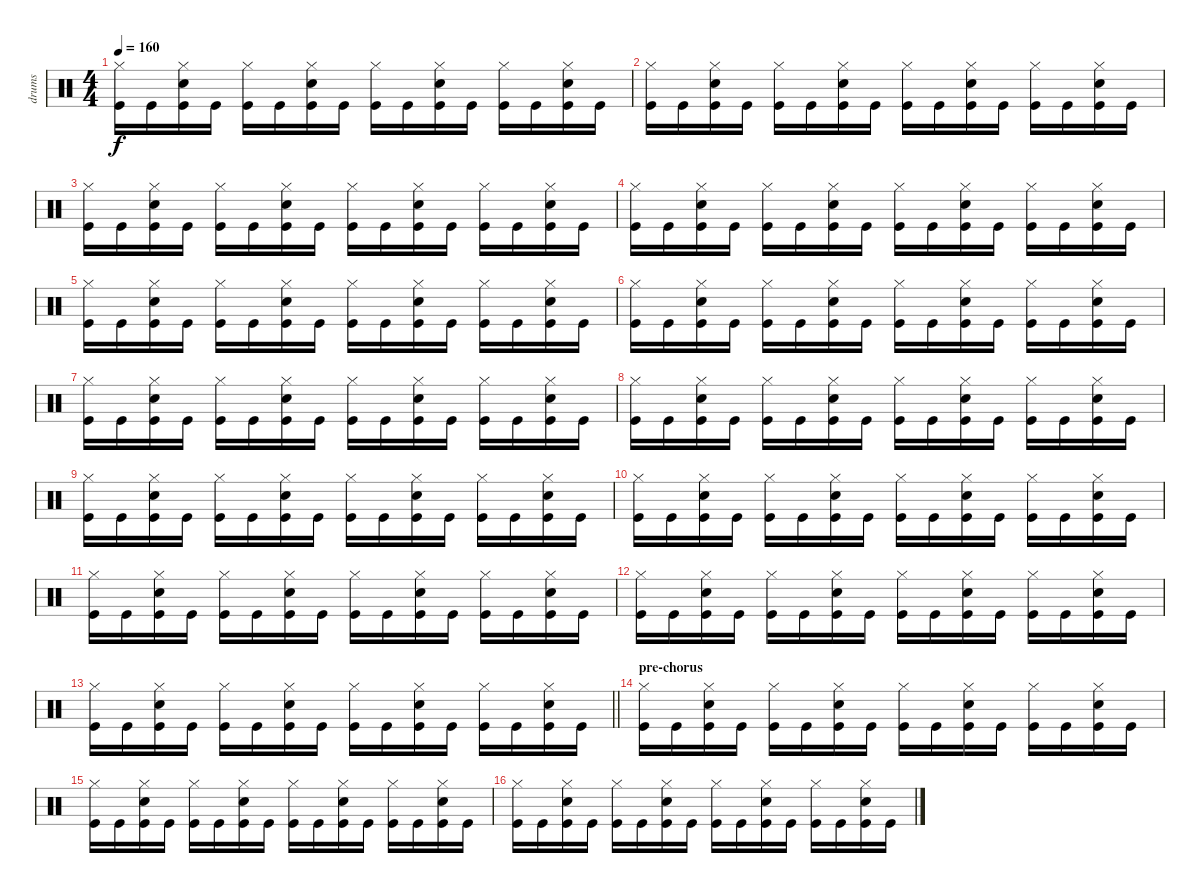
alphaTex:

\track ("drums" "drums") {instrument percussion}
\staff {score}
\articulation defaults
\ts (4 4)
\tempo 160
\clef neutral
\ks c
("Kick (hit)" "Hi-Hat (closed)").16{dy f} "Kick (hit)".16 ("Kick (hit)" "Hi-Hat (closed)" "Snare (hit) 2").16 "Kick (hit)".16 ("Kick (hit)" "Hi-Hat (closed)").16 "Kick (hit)".16 ("Kick (hit)" "Hi-Hat (closed)" "Snare (hit) 2").16 "Kick (hit)".16 ("Kick (hit)" "Hi-Hat (closed)").16 "Kick (hit)".16 ("Kick (hit)" "Hi-Hat (closed)" "Snare (hit) 2").16 "Kick (hit)".16 ("Kick (hit)" "Hi-Hat (closed)").16 "Kick (hit)".16 ("Kick (hit)" "Hi-Hat (closed)" "Snare (hit) 2").16 "Kick (hit)".16 |
("Kick (hit)" "Hi-Hat (closed)").16 "Kick (hit)".16 ("Kick (hit)" "Hi-Hat (closed)" "Snare (hit) 2").16 "Kick (hit)".16 ("Kick (hit)" "Hi-Hat (closed)").16 "Kick (hit)".16 ("Kick (hit)" "Hi-Hat (closed)" "Snare (hit) 2").16 "Kick (hit)".16 ("Kick (hit)" "Hi-Hat (closed)").16 "Kick (hit)".16 ("Kick (hit)" "Hi-Hat (closed)" "Snare (hit) 2").16 "Kick (hit)".16 ("Kick (hit)" "Hi-Hat (closed)").16 "Kick (hit)".16 ("Kick (hit)" "Hi-Hat (closed)" "Snare (hit) 2").16 "Kick (hit)".16 |
("Kick (hit)" "Hi-Hat (closed)").16 "Kick (hit)".16 ("Kick (hit)" "Hi-Hat (closed)" "Snare (hit) 2").16 "Kick (hit)".16 ("Kick (hit)" "Hi-Hat (closed)").16 "Kick (hit)".16 ("Kick (hit)" "Hi-Hat (closed)" "Snare (hit) 2").16 "Kick (hit)".16 ("Kick (hit)" "Hi-Hat (closed)").16 "Kick (hit)".16 ("Kick (hit)" "Hi-Hat (closed)" "Snare (hit) 2").16 "Kick (hit)".16 ("Kick (hit)" "Hi-Hat (closed)").16 "Kick (hit)".16 ("Kick (hit)" "Hi-Hat (closed)" "Snare (hit) 2").16 "Kick (hit)".16 |
("Kick (hit)" "Hi-Hat (closed)").16 "Kick (hit)".16 ("Kick (hit)" "Hi-Hat (closed)" "Snare (hit) 2").16 "Kick (hit)".16 ("Kick (hit)" "Hi-Hat (closed)").16 "Kick (hit)".16 ("Kick (hit)" "Hi-Hat (closed)" "Snare (hit) 2").16 "Kick (hit)".16 ("Kick (hit)" "Hi-Hat (closed)").16 "Kick (hit)".16 ("Kick (hit)" "Hi-Hat (closed)" "Snare (hit) 2").16 "Kick (hit)".16 ("Kick (hit)" "Hi-Hat (closed)").16 "Kick (hit)".16 ("Kick (hit)" "Hi-Hat (closed)" "Snare (hit) 2").16 "Kick (hit)".16 |
("Kick (hit)" "Hi-Hat (closed)").16 "Kick (hit)".16 ("Kick (hit)" "Hi-Hat (closed)" "Snare (hit) 2").16 "Kick (hit)".16 ("Kick (hit)" "Hi-Hat (closed)").16 "Kick (hit)".16 ("Kick (hit)" "Hi-Hat (closed)" "Snare (hit) 2").16 "Kick (hit)".16 ("Kick (hit)" "Hi-Hat (closed)").16 "Kick (hit)".16 ("Kick (hit)" "Hi-Hat (closed)" "Snare (hit) 2").16 "Kick (hit)".16 ("Kick (hit)" "Hi-Hat (closed)").16 "Kick (hit)".16 ("Kick (hit)" "Hi-Hat (closed)" "Snare (hit) 2").16 "Kick (hit)".16 |
("Kick (hit)" "Hi-Hat (closed)").16 "Kick (hit)".16 ("Kick (hit)" "Hi-Hat (closed)" "Snare (hit) 2").16 "Kick (hit)".16 ("Kick (hit)" "Hi-Hat (closed)").16 "Kick (hit)".16 ("Kick (hit)" "Hi-Hat (closed)" "Snare (hit) 2").16 "Kick (hit)".16 ("Kick (hit)" "Hi-Hat (closed)").16 "Kick (hit)".16 ("Kick (hit)" "Hi-Hat (closed)" "Snare (hit) 2").16 "Kick (hit)".16 ("Kick (hit)" "Hi-Hat (closed)").16 "Kick (hit)".16 ("Kick (hit)" "Hi-Hat (closed)" "Snare (hit) 2").16 "Kick (hit)".16 |
("Kick (hit)" "Hi-Hat (closed)").16 "Kick (hit)".16 ("Kick (hit)" "Hi-Hat (closed)" "Snare (hit) 2").16 "Kick (hit)".16 ("Kick (hit)" "Hi-Hat (closed)").16 "Kick (hit)".16 ("Kick (hit)" "Hi-Hat (closed)" "Snare (hit) 2").16 "Kick (hit)".16 ("Kick (hit)" "Hi-Hat (closed)").16 "Kick (hit)".16 ("Kick (hit)" "Hi-Hat (closed)" "Snare (hit) 2").16 "Kick (hit)".16 ("Kick (hit)" "Hi-Hat (closed)").16 "Kick (hit)".16 ("Kick (hit)" "Hi-Hat (closed)" "Snare (hit) 2").16 "Kick (hit)".16 |
("Kick (hit)" "Hi-Hat (closed)").16 "Kick (hit)".16 ("Kick (hit)" "Hi-Hat (closed)" "Snare (hit) 2").16 "Kick (hit)".16 ("Kick (hit)" "Hi-Hat (closed)").16 "Kick (hit)".16 ("Kick (hit)" "Hi-Hat (closed)" "Snare (hit) 2").16 "Kick (hit)".16 ("Kick (hit)" "Hi-Hat (closed)").16 "Kick (hit)".16 ("Kick (hit)" "Hi-Hat (closed)" "Snare (hit) 2").16 "Kick (hit)".16 ("Kick (hit)" "Hi-Hat (closed)").16 "Kick (hit)".16 ("Kick (hit)" "Hi-Hat (closed)" "Snare (hit) 2").16 "Kick (hit)".16 |
("Kick (hit)" "Hi-Hat (closed)").16 "Kick (hit)".16 ("Kick (hit)" "Hi-Hat (closed)" "Snare (hit) 2").16 "Kick (hit)".16 ("Kick (hit)" "Hi-Hat (closed)").16 "Kick (hit)".16 ("Kick (hit)" "Hi-Hat (closed)" "Snare (hit) 2").16 "Kick (hit)".16 ("Kick (hit)" "Hi-Hat (closed)").16 "Kick (hit)".16 ("Kick (hit)" "Hi-Hat (closed)" "Snare (hit) 2").16 "Kick (hit)".16 ("Kick (hit)" "Hi-Hat (closed)").16 "Kick (hit)".16 ("Kick (hit)" "Hi-Hat (closed)" "Snare (hit) 2").16 "Kick (hit)".16 |
("Kick (hit)" "Hi-Hat (closed)").16 "Kick (hit)".16 ("Kick (hit)" "Hi-Hat (closed)" "Snare (hit) 2").16 "Kick (hit)".16 ("Kick (hit)" "Hi-Hat (closed)").16 "Kick (hit)".16 ("Kick (hit)" "Hi-Hat (closed)" "Snare (hit) 2").16 "Kick (hit)".16 ("Kick (hit)" "Hi-Hat (closed)").16 "Kick (hit)".16 ("Kick (hit)" "Hi-Hat (closed)" "Snare (hit) 2").16 "Kick (hit)".16 ("Kick (hit)" "Hi-Hat (closed)").16 "Kick (hit)".16 ("Kick (hit)" "Hi-Hat (closed)" "Snare (hit) 2").16 "Kick (hit)".16 |
("Kick (hit)" "Hi-Hat (closed)").16 "Kick (hit)".16 ("Kick (hit)" "Hi-Hat (closed)" "Snare (hit) 2").16 "Kick (hit)".16 ("Kick (hit)" "Hi-Hat (closed)").16 "Kick (hit)".16 ("Kick (hit)" "Hi-Hat (closed)" "Snare (hit) 2").16 "Kick (hit)".16 ("Kick (hit)" "Hi-Hat (closed)").16 "Kick (hit)".16 ("Kick (hit)" "Hi-Hat (closed)" "Snare (hit) 2").16 "Kick (hit)".16 ("Kick (hit)" "Hi-Hat (closed)").16 "Kick (hit)".16 ("Kick (hit)" "Hi-Hat (closed)" "Snare (hit) 2").16 "Kick (hit)".16 |
("Kick (hit)" "Hi-Hat (closed)").16 "Kick (hit)".16 ("Kick (hit)" "Hi-Hat (closed)" "Snare (hit) 2").16 "Kick (hit)".16 ("Kick (hit)" "Hi-Hat (closed)").16 "Kick (hit)".16 ("Kick (hit)" "Hi-Hat (closed)" "Snare (hit) 2").16 "Kick (hit)".16 ("Kick (hit)" "Hi-Hat (closed)").16 "Kick (hit)".16 ("Kick (hit)" "Hi-Hat (closed)" "Snare (hit) 2").16 "Kick (hit)".16 ("Kick (hit)" "Hi-Hat (closed)").16 "Kick (hit)".16 ("Kick (hit)" "Hi-Hat (closed)" "Snare (hit) 2").16 "Kick (hit)".16 |
\barLineRight lightlight
("Kick (hit)" "Hi-Hat (closed)").16 "Kick (hit)".16 ("Kick (hit)" "Hi-Hat (closed)" "Snare (hit) 2").16 "Kick (hit)".16 ("Kick (hit)" "Hi-Hat (closed)").16 "Kick (hit)".16 ("Kick (hit)" "Hi-Hat (closed)" "Snare (hit) 2").16 "Kick (hit)".16 ("Kick (hit)" "Hi-Hat (closed)").16 "Kick (hit)".16 ("Kick (hit)" "Hi-Hat (closed)" "Snare (hit) 2").16 "Kick (hit)".16 ("Kick (hit)" "Hi-Hat (closed)").16 "Kick (hit)".16 ("Kick (hit)" "Hi-Hat (closed)" "Snare (hit) 2").16 "Kick (hit)".16 |
\section ("" "pre-chorus")
("Kick (hit)" "Hi-Hat (closed)").16 "Kick (hit)".16 ("Kick (hit)" "Hi-Hat (closed)" "Snare (hit) 2").16 "Kick (hit)".16 ("Kick (hit)" "Hi-Hat (closed)").16 "Kick (hit)".16 ("Kick (hit)" "Hi-Hat (closed)" "Snare (hit) 2").16 "Kick (hit)".16 ("Kick (hit)" "Hi-Hat (closed)").16 "Kick (hit)".16 ("Kick (hit)" "Hi-Hat (closed)" "Snare (hit) 2").16 "Kick (hit)".16 ("Kick (hit)" "Hi-Hat (closed)").16 "Kick (hit)".16 ("Kick (hit)" "Hi-Hat (closed)" "Snare (hit) 2").16 "Kick (hit)".16 |
("Kick (hit)" "Hi-Hat (closed)").16 "Kick (hit)".16 ("Kick (hit)" "Hi-Hat (closed)" "Snare (hit) 2").16 "Kick (hit)".16 ("Kick (hit)" "Hi-Hat (closed)").16 "Kick (hit)".16 ("Kick (hit)" "Hi-Hat (closed)" "Snare (hit) 2").16 "Kick (hit)".16 ("Kick (hit)" "Hi-Hat (closed)").16 "Kick (hit)".16 ("Kick (hit)" "Hi-Hat (closed)" "Snare (hit) 2").16 "Kick (hit)".16 ("Kick (hit)" "Hi-Hat (closed)").16 "Kick (hit)".16 ("Kick (hit)" "Hi-Hat (closed)" "Snare (hit) 2").16 "Kick (hit)".16 |
("Kick (hit)" "Hi-Hat (closed)").16 "Kick (hit)".16 ("Kick (hit)" "Hi-Hat (closed)" "Snare (hit) 2").16 "Kick (hit)".16 ("Kick (hit)" "Hi-Hat (closed)").16 "Kick (hit)".16 ("Kick (hit)" "Hi-Hat (closed)" "Snare (hit) 2").16 "Kick (hit)".16 ("Kick (hit)" "Hi-Hat (closed)").16 "Kick (hit)".16 ("Kick (hit)" "Hi-Hat (closed)" "Snare (hit) 2").16 "Kick (hit)".16 ("Kick (hit)" "Hi-Hat (closed)").16 "Kick (hit)".16 ("Kick (hit)" "Hi-Hat (closed)" "Snare (hit) 2").16 "Kick (hit)".16
